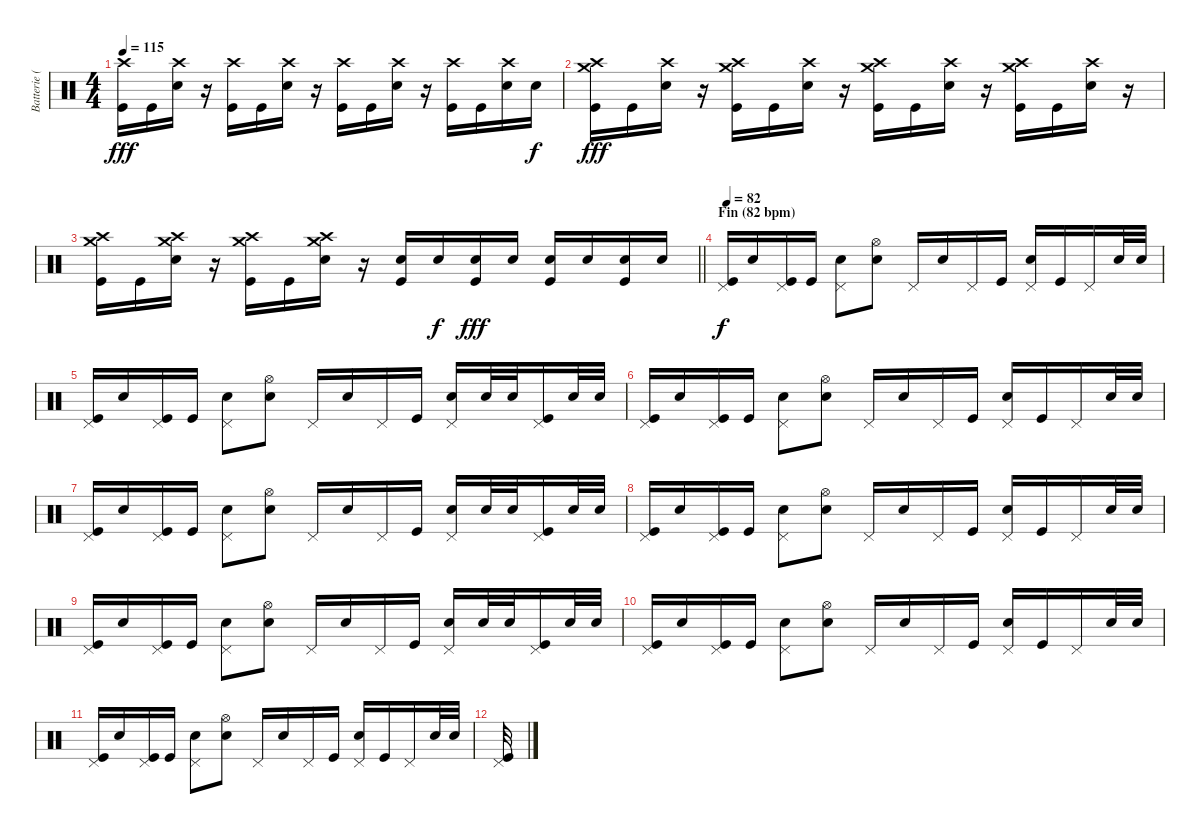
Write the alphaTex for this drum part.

\track ("Batterie (Steve)" "Batterie (") {instrument percussion}
\staff {score}
\articulation defaults
\ts (4 4)
\tempo 115
\clef neutral
\ks c
("Crash high (hit)" "Kick (hit)").16{dy fff} "Kick (hit)".16 ("Crash high (hit)" "Electric Snare (hit)").16 r.16 ("Crash high (hit)" "Kick (hit)").16 "Kick (hit)".16 ("Crash high (hit)" "Electric Snare (hit)").16 r.16 ("Crash high (hit)" "Kick (hit)").16 "Kick (hit)".16 ("Crash high (hit)" "Electric Snare (hit)").16 r.16 ("Crash high (hit)" "Kick (hit)").16 "Kick (hit)".16 ("Crash high (hit)" "Electric Snare (hit)").16 "Electric Snare (hit)".16{dy f} |
("Crash medium (hit)" "Crash high (hit)" "Kick (hit)").16{dy fff} "Kick (hit)".16 ("Crash high (hit)" "Electric Snare (hit)").16 r.16 ("Crash medium (hit)" "Crash high (hit)" "Kick (hit)").16 "Kick (hit)".16 ("Crash high (hit)" "Electric Snare (hit)").16 r.16 ("Crash medium (hit)" "Crash high (hit)" "Kick (hit)").16 "Kick (hit)".16 ("Crash high (hit)" "Electric Snare (hit)").16 r.16 ("Crash medium (hit)" "Crash high (hit)" "Kick (hit)").16 "Kick (hit)".16 ("Crash high (hit)" "Electric Snare (hit)").16 r.16 |
\barLineRight lightlight
("Crash medium (hit)" "Crash high (hit)" "Kick (hit)").16 "Kick (hit)".16 ("Crash medium (hit)" "Crash high (hit)" "Electric Snare (hit)").16 r.16 ("Crash medium (hit)" "Crash high (hit)" "Kick (hit)").16 "Kick (hit)".16 ("Crash medium (hit)" "Crash high (hit)" "Electric Snare (hit)").16 r.16 ("Kick (hit)" "Electric Snare (hit)").16 "Electric Snare (hit)".16{dy f} ("Kick (hit)" "Electric Snare (hit)").16{dy fff} "Electric Snare (hit)".16 ("Kick (hit)" "Electric Snare (hit)").16 "Electric Snare (hit)".16 ("Kick (hit)" "Electric Snare (hit)").16 "Electric Snare (hit)".16 |
\section ("" "Fin (82 bpm)")
\tempo 82
("Pedal Hi-Hat (hit)" "Kick (hit)").16{dy f} "Electric Snare (hit)".16 ("Pedal Hi-Hat (hit)" "Kick (hit)").16 "Kick (hit)".16 ("Pedal Hi-Hat (hit)" "Electric Snare (hit)").8 ("Hi-Hat (open)" "Electric Snare (hit)").8 "Pedal Hi-Hat (hit)".16 "Electric Snare (hit)".16 "Pedal Hi-Hat (hit)".16 "Kick (hit)".16 ("Pedal Hi-Hat (hit)" "Electric Snare (hit)").16 "Kick (hit)".16 "Pedal Hi-Hat (hit)".16 "Electric Snare (hit)".32 "Electric Snare (hit)".32 |
("Pedal Hi-Hat (hit)" "Kick (hit)").16 "Electric Snare (hit)".16 ("Pedal Hi-Hat (hit)" "Kick (hit)").16 "Kick (hit)".16 ("Pedal Hi-Hat (hit)" "Electric Snare (hit)").8 ("Hi-Hat (open)" "Electric Snare (hit)").8 "Pedal Hi-Hat (hit)".16 "Electric Snare (hit)".16 "Pedal Hi-Hat (hit)".16 "Kick (hit)".16 ("Pedal Hi-Hat (hit)" "Electric Snare (hit)").16 "Electric Snare (hit)".32 "Electric Snare (hit)".32 ("Pedal Hi-Hat (hit)" "Kick (hit)").16 "Electric Snare (hit)".32 "Electric Snare (hit)".32 |
("Pedal Hi-Hat (hit)" "Kick (hit)").16 "Electric Snare (hit)".16 ("Pedal Hi-Hat (hit)" "Kick (hit)").16 "Kick (hit)".16 ("Pedal Hi-Hat (hit)" "Electric Snare (hit)").8 ("Hi-Hat (open)" "Electric Snare (hit)").8 "Pedal Hi-Hat (hit)".16 "Electric Snare (hit)".16 "Pedal Hi-Hat (hit)".16 "Kick (hit)".16 ("Pedal Hi-Hat (hit)" "Electric Snare (hit)").16 "Kick (hit)".16 "Pedal Hi-Hat (hit)".16 "Electric Snare (hit)".32 "Electric Snare (hit)".32 |
("Pedal Hi-Hat (hit)" "Kick (hit)").16 "Electric Snare (hit)".16 ("Pedal Hi-Hat (hit)" "Kick (hit)").16 "Kick (hit)".16 ("Pedal Hi-Hat (hit)" "Electric Snare (hit)").8 ("Hi-Hat (open)" "Electric Snare (hit)").8 "Pedal Hi-Hat (hit)".16 "Electric Snare (hit)".16 "Pedal Hi-Hat (hit)".16 "Kick (hit)".16 ("Pedal Hi-Hat (hit)" "Electric Snare (hit)").16 "Electric Snare (hit)".32 "Electric Snare (hit)".32 ("Pedal Hi-Hat (hit)" "Kick (hit)").16 "Electric Snare (hit)".32 "Electric Snare (hit)".32 |
("Pedal Hi-Hat (hit)" "Kick (hit)").16 "Electric Snare (hit)".16 ("Pedal Hi-Hat (hit)" "Kick (hit)").16 "Kick (hit)".16 ("Pedal Hi-Hat (hit)" "Electric Snare (hit)").8 ("Hi-Hat (open)" "Electric Snare (hit)").8 "Pedal Hi-Hat (hit)".16 "Electric Snare (hit)".16 "Pedal Hi-Hat (hit)".16 "Kick (hit)".16 ("Pedal Hi-Hat (hit)" "Electric Snare (hit)").16 "Kick (hit)".16 "Pedal Hi-Hat (hit)".16 "Electric Snare (hit)".32 "Electric Snare (hit)".32 |
("Pedal Hi-Hat (hit)" "Kick (hit)").16 "Electric Snare (hit)".16 ("Pedal Hi-Hat (hit)" "Kick (hit)").16 "Kick (hit)".16 ("Pedal Hi-Hat (hit)" "Electric Snare (hit)").8 ("Hi-Hat (open)" "Electric Snare (hit)").8 "Pedal Hi-Hat (hit)".16 "Electric Snare (hit)".16 "Pedal Hi-Hat (hit)".16 "Kick (hit)".16 ("Pedal Hi-Hat (hit)" "Electric Snare (hit)").16 "Electric Snare (hit)".32 "Electric Snare (hit)".32 ("Pedal Hi-Hat (hit)" "Kick (hit)").16 "Electric Snare (hit)".32 "Electric Snare (hit)".32 |
("Pedal Hi-Hat (hit)" "Kick (hit)").16 "Electric Snare (hit)".16 ("Pedal Hi-Hat (hit)" "Kick (hit)").16 "Kick (hit)".16 ("Pedal Hi-Hat (hit)" "Electric Snare (hit)").8 ("Hi-Hat (open)" "Electric Snare (hit)").8 "Pedal Hi-Hat (hit)".16 "Electric Snare (hit)".16 "Pedal Hi-Hat (hit)".16 "Kick (hit)".16 ("Pedal Hi-Hat (hit)" "Electric Snare (hit)").16 "Kick (hit)".16 "Pedal Hi-Hat (hit)".16 "Electric Snare (hit)".32 "Electric Snare (hit)".32 |
("Pedal Hi-Hat (hit)" "Kick (hit)").16 "Electric Snare (hit)".16 ("Pedal Hi-Hat (hit)" "Kick (hit)").16 "Kick (hit)".16 ("Pedal Hi-Hat (hit)" "Electric Snare (hit)").8 ("Hi-Hat (open)" "Electric Snare (hit)").8 "Pedal Hi-Hat (hit)".16 "Electric Snare (hit)".16 "Pedal Hi-Hat (hit)".16 "Kick (hit)".16 ("Pedal Hi-Hat (hit)" "Electric Snare (hit)").16 "Kick (hit)".16 "Pedal Hi-Hat (hit)".16 "Electric Snare (hit)".32 "Electric Snare (hit)".32 |
("Pedal Hi-Hat (hit)" "Kick (hit)").32
